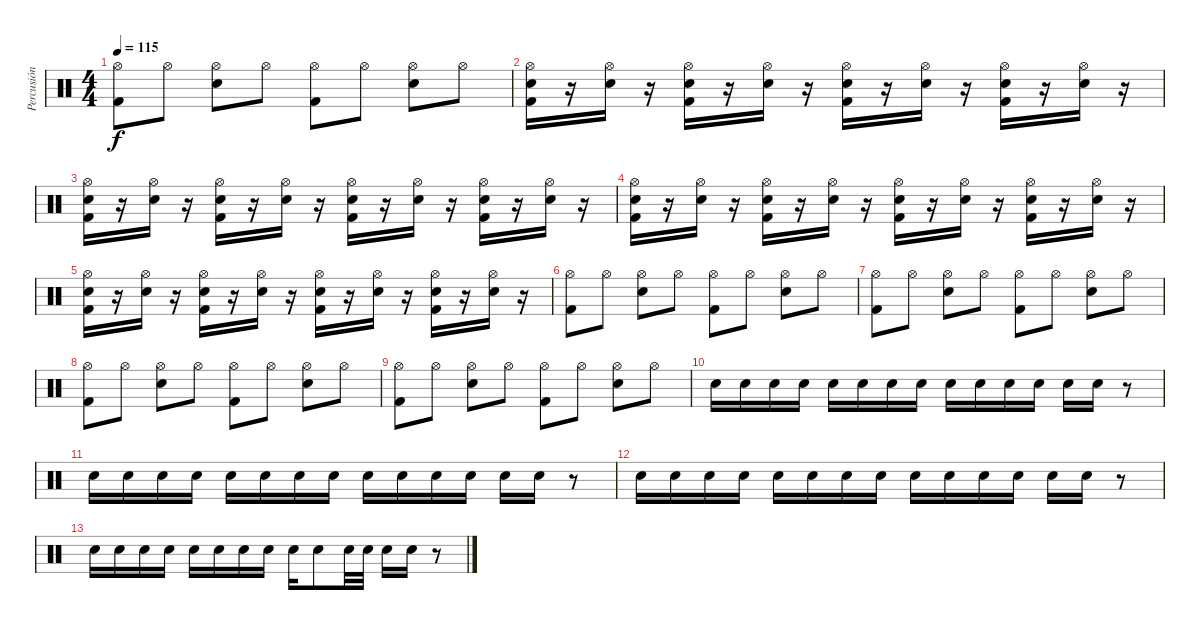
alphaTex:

\track ("Percusión" "Percusión") {instrument percussion}
\staff {score}
\articulation defaults
\ts (4 4)
\tempo 115
\clef neutral
\ks c
("Kick (hit) 2" "Hi-Hat (open)").8{dy f} "Hi-Hat (open)".8 ("Electric Snare (hit)" "Hi-Hat (open)").8 "Hi-Hat (open)".8 ("Kick (hit) 2" "Hi-Hat (open)").8 "Hi-Hat (open)".8 ("Electric Snare (hit)" "Hi-Hat (open)").8 "Hi-Hat (open)".8 |
("Kick (hit) 2" "Electric Snare (hit)" "Hi-Hat (open)").16 r.16 ("Electric Snare (hit)" "Hi-Hat (open)").16 r.16 ("Kick (hit) 2" "Electric Snare (hit)" "Hi-Hat (open)").16 r.16 ("Electric Snare (hit)" "Hi-Hat (open)").16 r.16 ("Kick (hit) 2" "Electric Snare (hit)" "Hi-Hat (open)").16 r.16 ("Electric Snare (hit)" "Hi-Hat (open)").16 r.16 ("Kick (hit) 2" "Electric Snare (hit)" "Hi-Hat (open)").16 r.16 ("Electric Snare (hit)" "Hi-Hat (open)").16 r.16 |
("Kick (hit) 2" "Electric Snare (hit)" "Hi-Hat (open)").16 r.16 ("Electric Snare (hit)" "Hi-Hat (open)").16 r.16 ("Kick (hit) 2" "Electric Snare (hit)" "Hi-Hat (open)").16 r.16 ("Electric Snare (hit)" "Hi-Hat (open)").16 r.16 ("Kick (hit) 2" "Electric Snare (hit)" "Hi-Hat (open)").16 r.16 ("Electric Snare (hit)" "Hi-Hat (open)").16 r.16 ("Kick (hit) 2" "Electric Snare (hit)" "Hi-Hat (open)").16 r.16 ("Electric Snare (hit)" "Hi-Hat (open)").16 r.16 |
("Kick (hit) 2" "Electric Snare (hit)" "Hi-Hat (open)").16 r.16 ("Electric Snare (hit)" "Hi-Hat (open)").16 r.16 ("Kick (hit) 2" "Electric Snare (hit)" "Hi-Hat (open)").16 r.16 ("Electric Snare (hit)" "Hi-Hat (open)").16 r.16 ("Kick (hit) 2" "Electric Snare (hit)" "Hi-Hat (open)").16 r.16 ("Electric Snare (hit)" "Hi-Hat (open)").16 r.16 ("Kick (hit) 2" "Electric Snare (hit)" "Hi-Hat (open)").16 r.16 ("Electric Snare (hit)" "Hi-Hat (open)").16 r.16 |
("Kick (hit) 2" "Electric Snare (hit)" "Hi-Hat (open)").16 r.16 ("Electric Snare (hit)" "Hi-Hat (open)").16 r.16 ("Kick (hit) 2" "Electric Snare (hit)" "Hi-Hat (open)").16 r.16 ("Electric Snare (hit)" "Hi-Hat (open)").16 r.16 ("Kick (hit) 2" "Electric Snare (hit)" "Hi-Hat (open)").16 r.16 ("Electric Snare (hit)" "Hi-Hat (open)").16 r.16 ("Kick (hit) 2" "Electric Snare (hit)" "Hi-Hat (open)").16 r.16 ("Electric Snare (hit)" "Hi-Hat (open)").16 r.16 |
("Kick (hit) 2" "Hi-Hat (open)").8 "Hi-Hat (open)".8 ("Electric Snare (hit)" "Hi-Hat (open)").8 "Hi-Hat (open)".8 ("Kick (hit) 2" "Hi-Hat (open)").8 "Hi-Hat (open)".8 ("Electric Snare (hit)" "Hi-Hat (open)").8 "Hi-Hat (open)".8 |
("Kick (hit) 2" "Hi-Hat (open)").8 "Hi-Hat (open)".8 ("Electric Snare (hit)" "Hi-Hat (open)").8 "Hi-Hat (open)".8 ("Kick (hit) 2" "Hi-Hat (open)").8 "Hi-Hat (open)".8 ("Electric Snare (hit)" "Hi-Hat (open)").8 "Hi-Hat (open)".8 |
("Kick (hit) 2" "Hi-Hat (open)").8 "Hi-Hat (open)".8 ("Electric Snare (hit)" "Hi-Hat (open)").8 "Hi-Hat (open)".8 ("Kick (hit) 2" "Hi-Hat (open)").8 "Hi-Hat (open)".8 ("Electric Snare (hit)" "Hi-Hat (open)").8 "Hi-Hat (open)".8 |
("Kick (hit) 2" "Hi-Hat (open)").8 "Hi-Hat (open)".8 ("Electric Snare (hit)" "Hi-Hat (open)").8 "Hi-Hat (open)".8 ("Kick (hit) 2" "Hi-Hat (open)").8 "Hi-Hat (open)".8 ("Electric Snare (hit)" "Hi-Hat (open)").8 "Hi-Hat (open)".8 |
"Electric Snare (hit)".16 "Electric Snare (hit)".16 "Electric Snare (hit)".16 "Electric Snare (hit)".16 "Electric Snare (hit)".16 "Electric Snare (hit)".16 "Electric Snare (hit)".16 "Electric Snare (hit)".16 "Electric Snare (hit)".16 "Electric Snare (hit)".16 "Electric Snare (hit)".16 "Electric Snare (hit)".16 "Electric Snare (hit)".16 "Electric Snare (hit)".16 r.8 |
"Electric Snare (hit)".16 "Electric Snare (hit)".16 "Electric Snare (hit)".16 "Electric Snare (hit)".16 "Electric Snare (hit)".16 "Electric Snare (hit)".16 "Electric Snare (hit)".16 "Electric Snare (hit)".16 "Electric Snare (hit)".16 "Electric Snare (hit)".16 "Electric Snare (hit)".16 "Electric Snare (hit)".16 "Electric Snare (hit)".16 "Electric Snare (hit)".16 r.8 |
"Electric Snare (hit)".16 "Electric Snare (hit)".16 "Electric Snare (hit)".16 "Electric Snare (hit)".16 "Electric Snare (hit)".16 "Electric Snare (hit)".16 "Electric Snare (hit)".16 "Electric Snare (hit)".16 "Electric Snare (hit)".16 "Electric Snare (hit)".16 "Electric Snare (hit)".16 "Electric Snare (hit)".16 "Electric Snare (hit)".16 "Electric Snare (hit)".16 r.8 |
"Electric Snare (hit)".16 "Electric Snare (hit)".16 "Electric Snare (hit)".16 "Electric Snare (hit)".16 "Electric Snare (hit)".16 "Electric Snare (hit)".16 "Electric Snare (hit)".16 "Electric Snare (hit)".16 "Electric Snare (hit)".16 "Electric Snare (hit)".8 "Electric Snare (hit)".32 "Electric Snare (hit)".32 "Electric Snare (hit)".16 "Electric Snare (hit)".16 r.8
